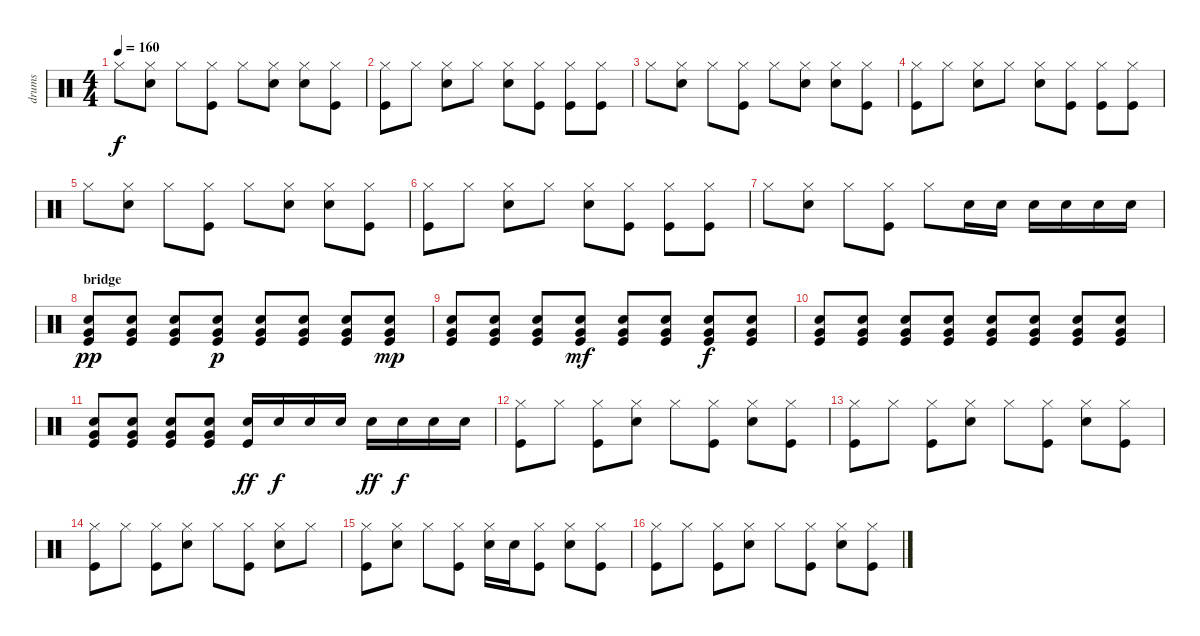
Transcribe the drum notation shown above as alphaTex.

\track ("drums" "drums") {instrument percussion}
\staff {score}
\articulation defaults
\ts (4 4)
\tempo 160
\clef neutral
\ks c "Hi-Hat (closed)".8{dy f}
("Hi-Hat (closed)" "Electric Snare (hit)").8 "Hi-Hat (closed)".8 ("Hi-Hat (closed)" "Kick (hit)").8 "Hi-Hat (closed)".8 ("Hi-Hat (closed)" "Electric Snare (hit)").8 ("Hi-Hat (closed)" "Electric Snare (hit)").8 ("Hi-Hat (closed)" "Kick (hit)").8 |
("Hi-Hat (closed)" "Kick (hit)").8 "Hi-Hat (closed)".8 ("Hi-Hat (closed)" "Electric Snare (hit)").8 "Hi-Hat (closed)".8 ("Hi-Hat (closed)" "Electric Snare (hit)").8 ("Hi-Hat (closed)" "Kick (hit)").8 ("Hi-Hat (closed)" "Kick (hit)").8 ("Hi-Hat (closed)" "Kick (hit)").8 |
"Hi-Hat (closed)".8 ("Hi-Hat (closed)" "Electric Snare (hit)").8 "Hi-Hat (closed)".8 ("Hi-Hat (closed)" "Kick (hit)").8 "Hi-Hat (closed)".8 ("Hi-Hat (closed)" "Electric Snare (hit)").8 ("Hi-Hat (closed)" "Electric Snare (hit)").8 ("Hi-Hat (closed)" "Kick (hit)").8 |
("Hi-Hat (closed)" "Kick (hit)").8 "Hi-Hat (closed)".8 ("Hi-Hat (closed)" "Electric Snare (hit)").8 "Hi-Hat (closed)".8 ("Hi-Hat (closed)" "Electric Snare (hit)").8 ("Hi-Hat (closed)" "Kick (hit)").8 ("Hi-Hat (closed)" "Kick (hit)").8 ("Hi-Hat (closed)" "Kick (hit)").8 |
"Hi-Hat (closed)".8 ("Hi-Hat (closed)" "Electric Snare (hit)").8 "Hi-Hat (closed)".8 ("Hi-Hat (closed)" "Kick (hit)").8 "Hi-Hat (closed)".8 ("Hi-Hat (closed)" "Electric Snare (hit)").8 ("Hi-Hat (closed)" "Electric Snare (hit)").8 ("Hi-Hat (closed)" "Kick (hit)").8 |
("Hi-Hat (closed)" "Kick (hit)").8 "Hi-Hat (closed)".8 ("Hi-Hat (closed)" "Electric Snare (hit)").8 "Hi-Hat (closed)".8 ("Hi-Hat (closed)" "Electric Snare (hit)").8 ("Hi-Hat (closed)" "Kick (hit)").8 ("Hi-Hat (closed)" "Kick (hit)").8 ("Hi-Hat (closed)" "Kick (hit)").8 |
"Hi-Hat (closed)".8 ("Hi-Hat (closed)" "Electric Snare (hit)").8 "Hi-Hat (closed)".8 ("Hi-Hat (closed)" "Kick (hit)").8 "Hi-Hat (closed)".8 "Electric Snare (hit)".16 "Electric Snare (hit)".16 "Electric Snare (hit)".16 "Electric Snare (hit)".16 "Electric Snare (hit)".16 "Electric Snare (hit)".16 |
\section ("" "bridge")
("Very Low Tom (hit)" "Electric Snare (hit)" "Kick (hit)").8{dy pp} ("Very Low Tom (hit)" "Electric Snare (hit)" "Kick (hit)").8 ("Very Low Tom (hit)" "Electric Snare (hit)" "Kick (hit)").8 ("Very Low Tom (hit)" "Electric Snare (hit)" "Kick (hit)").8{dy p} ("Very Low Tom (hit)" "Electric Snare (hit)" "Kick (hit)").8 ("Very Low Tom (hit)" "Electric Snare (hit)" "Kick (hit)").8 ("Very Low Tom (hit)" "Electric Snare (hit)" "Kick (hit)").8 ("Very Low Tom (hit)" "Electric Snare (hit)" "Kick (hit)").8{dy mp} |
("Very Low Tom (hit)" "Electric Snare (hit)" "Kick (hit)").8 ("Very Low Tom (hit)" "Electric Snare (hit)" "Kick (hit)").8 ("Very Low Tom (hit)" "Electric Snare (hit)" "Kick (hit)").8 ("Very Low Tom (hit)" "Electric Snare (hit)" "Kick (hit)").8{dy mf} ("Very Low Tom (hit)" "Electric Snare (hit)" "Kick (hit)").8 ("Very Low Tom (hit)" "Electric Snare (hit)" "Kick (hit)").8 ("Very Low Tom (hit)" "Electric Snare (hit)" "Kick (hit)").8{dy f} ("Very Low Tom (hit)" "Electric Snare (hit)" "Kick (hit)").8 |
("Very Low Tom (hit)" "Electric Snare (hit)" "Kick (hit)").8 ("Very Low Tom (hit)" "Electric Snare (hit)" "Kick (hit)").8 ("Very Low Tom (hit)" "Electric Snare (hit)" "Kick (hit)").8 ("Very Low Tom (hit)" "Electric Snare (hit)" "Kick (hit)").8 ("Very Low Tom (hit)" "Electric Snare (hit)" "Kick (hit)").8 ("Very Low Tom (hit)" "Electric Snare (hit)" "Kick (hit)").8 ("Very Low Tom (hit)" "Electric Snare (hit)" "Kick (hit)").8 ("Very Low Tom (hit)" "Electric Snare (hit)" "Kick (hit)").8 |
("Very Low Tom (hit)" "Electric Snare (hit)" "Kick (hit)").8 ("Very Low Tom (hit)" "Electric Snare (hit)" "Kick (hit)").8 ("Very Low Tom (hit)" "Electric Snare (hit)" "Kick (hit)").8 ("Very Low Tom (hit)" "Electric Snare (hit)" "Kick (hit)").8 ("Electric Snare (hit)" "Kick (hit)").16{dy ff} "Electric Snare (hit)".16{dy f} "Electric Snare (hit)".16 "Electric Snare (hit)".16 "Electric Snare (hit)".16{dy ff} "Electric Snare (hit)".16{dy f} "Electric Snare (hit)".16 "Electric Snare (hit)".16 |
\section ("" "")
("Hi-Hat (closed)" "Kick (hit)").8 "Hi-Hat (closed)".8 ("Hi-Hat (closed)" "Kick (hit)").8 ("Hi-Hat (closed)" "Electric Snare (hit)").8 "Hi-Hat (closed)".8 ("Hi-Hat (closed)" "Kick (hit)").8 ("Hi-Hat (closed)" "Electric Snare (hit)").8 ("Hi-Hat (closed)" "Kick (hit)").8 |
("Hi-Hat (closed)" "Kick (hit)").8 "Hi-Hat (closed)".8 ("Hi-Hat (closed)" "Kick (hit)").8 ("Hi-Hat (closed)" "Electric Snare (hit)").8 "Hi-Hat (closed)".8 ("Hi-Hat (closed)" "Kick (hit)").8 ("Hi-Hat (closed)" "Electric Snare (hit)").8 ("Hi-Hat (closed)" "Kick (hit)").8 |
("Hi-Hat (closed)" "Kick (hit)").8 "Hi-Hat (closed)".8 ("Hi-Hat (closed)" "Kick (hit)").8 ("Hi-Hat (closed)" "Electric Snare (hit)").8 "Hi-Hat (closed)".8 ("Hi-Hat (closed)" "Kick (hit)").8 ("Hi-Hat (closed)" "Electric Snare (hit)").8 "Hi-Hat (closed)".8 |
("Hi-Hat (closed)" "Kick (hit)").8 ("Hi-Hat (closed)" "Electric Snare (hit)").8 "Hi-Hat (closed)".8 ("Hi-Hat (closed)" "Kick (hit)").8 ("Hi-Hat (closed)" "Electric Snare (hit)").16 "Electric Snare (hit)".16 ("Hi-Hat (closed)" "Kick (hit)").8 ("Hi-Hat (closed)" "Electric Snare (hit)").8 ("Hi-Hat (closed)" "Kick (hit)").8 |
\section ("" "")
("Hi-Hat (closed)" "Kick (hit)").8 "Hi-Hat (closed)".8 ("Hi-Hat (closed)" "Kick (hit)").8 ("Hi-Hat (closed)" "Electric Snare (hit)").8 "Hi-Hat (closed)".8 ("Hi-Hat (closed)" "Kick (hit)").8 ("Hi-Hat (closed)" "Electric Snare (hit)").8 ("Hi-Hat (closed)" "Kick (hit)").8
